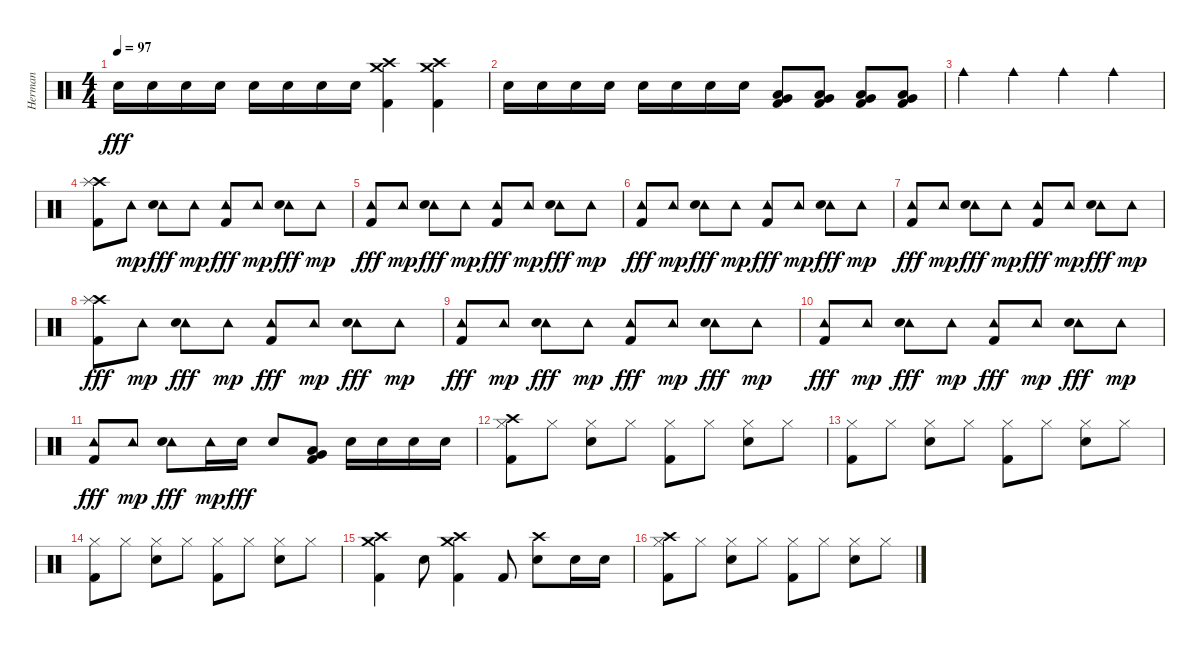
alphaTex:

\track ("Herman" "Herman") {instrument percussion}
\staff {score}
\articulation defaults
\ts (4 4)
\tempo 97
\clef neutral
\ks c "Snare (hit) 2".16{dy fff} "Snare (hit) 2".16 "Snare (hit) 2".16 "Snare (hit) 2".16 "Snare (hit) 2".16 "Snare (hit) 2".16 "Snare (hit) 2".16 "Snare (hit) 2".16
("Crash high (hit)" "Crash medium (hit)" "Kick (hit) 2").4 ("Crash high (hit)" "Crash medium (hit)" "Kick (hit) 2").4 |
"Snare (hit) 2".16 "Snare (hit) 2".16 "Snare (hit) 2".16 "Snare (hit) 2".16 "Snare (hit) 2".16 "Snare (hit) 2".16 "Snare (hit) 2".16 "Snare (hit) 2".16 ("Low Floor Tom (hit)" "Very Low Tom (hit)" "Kick (hit) 2").8 ("Low Floor Tom (hit)" "Very Low Tom (hit)" "Kick (hit) 2").8 ("Low Floor Tom (hit)" "Very Low Tom (hit)" "Kick (hit) 2").8 ("Low Floor Tom (hit)" "Very Low Tom (hit)" "Kick (hit) 2").8 |
"Cowbell medium (hit)".4 "Cowbell medium (hit)".4 "Cowbell medium (hit)".4 "Cowbell medium (hit)".4 |
("Crash high (hit)" "Splash (hit)" "Kick (hit) 2").8 "Tambourine (hit)".8{dy mp} ("Tambourine (hit)" "Snare (hit) 2").8{dy fff} "Tambourine (hit)".8{dy mp} ("Tambourine (hit)" "Kick (hit) 2").8{dy fff} "Tambourine (hit)".8{dy mp} ("Tambourine (hit)" "Snare (hit) 2").8{dy fff} "Tambourine (hit)".8{dy mp} |
("Tambourine (hit)" "Kick (hit) 2").8{dy fff} "Tambourine (hit)".8{dy mp} ("Tambourine (hit)" "Snare (hit) 2").8{dy fff} "Tambourine (hit)".8{dy mp} ("Tambourine (hit)" "Kick (hit) 2").8{dy fff} "Tambourine (hit)".8{dy mp} ("Tambourine (hit)" "Snare (hit) 2").8{dy fff} "Tambourine (hit)".8{dy mp} |
("Tambourine (hit)" "Kick (hit) 2").8{dy fff} "Tambourine (hit)".8{dy mp} ("Tambourine (hit)" "Snare (hit) 2").8{dy fff} "Tambourine (hit)".8{dy mp} ("Tambourine (hit)" "Kick (hit) 2").8{dy fff} "Tambourine (hit)".8{dy mp} ("Tambourine (hit)" "Snare (hit) 2").8{dy fff} "Tambourine (hit)".8{dy mp} |
("Tambourine (hit)" "Kick (hit) 2").8{dy fff} "Tambourine (hit)".8{dy mp} ("Tambourine (hit)" "Snare (hit) 2").8{dy fff} "Tambourine (hit)".8{dy mp} ("Tambourine (hit)" "Kick (hit) 2").8{dy fff} "Tambourine (hit)".8{dy mp} ("Tambourine (hit)" "Snare (hit) 2").8{dy fff} "Tambourine (hit)".8{dy mp} |
("Crash high (hit)" "Splash (hit)" "Kick (hit) 2").8{dy fff} "Tambourine (hit)".8{dy mp} ("Tambourine (hit)" "Snare (hit) 2").8{dy fff} "Tambourine (hit)".8{dy mp} ("Tambourine (hit)" "Kick (hit) 2").8{dy fff} "Tambourine (hit)".8{dy mp} ("Tambourine (hit)" "Snare (hit) 2").8{dy fff} "Tambourine (hit)".8{dy mp} |
("Tambourine (hit)" "Kick (hit) 2").8{dy fff} "Tambourine (hit)".8{dy mp} ("Tambourine (hit)" "Snare (hit) 2").8{dy fff} "Tambourine (hit)".8{dy mp} ("Tambourine (hit)" "Kick (hit) 2").8{dy fff} "Tambourine (hit)".8{dy mp} ("Tambourine (hit)" "Snare (hit) 2").8{dy fff} "Tambourine (hit)".8{dy mp} |
("Tambourine (hit)" "Kick (hit) 2").8{dy fff} "Tambourine (hit)".8{dy mp} ("Tambourine (hit)" "Snare (hit) 2").8{dy fff} "Tambourine (hit)".8{dy mp} ("Tambourine (hit)" "Kick (hit) 2").8{dy fff} "Tambourine (hit)".8{dy mp} ("Tambourine (hit)" "Snare (hit) 2").8{dy fff} "Tambourine (hit)".8{dy mp} |
("Tambourine (hit)" "Kick (hit) 2").8{dy fff} "Tambourine (hit)".8{dy mp} ("Tambourine (hit)" "Snare (hit) 2").8{dy fff} "Tambourine (hit)".16{dy mp} "Snare (hit) 2".16{dy fff} "Snare (hit) 2".8 ("Low Floor Tom (hit)" "Very Low Tom (hit)" "Kick (hit) 2").8 "Snare (hit) 2".16 "Snare (hit) 2".16 "Snare (hit) 2".16 "Snare (hit) 2".16 |
("Crash high (hit)" "Hi-Hat (closed)" "Kick (hit) 2").8 "Hi-Hat (closed)".8 ("Hi-Hat (closed)" "Snare (hit) 2").8 "Hi-Hat (closed)".8 ("Hi-Hat (closed)" "Kick (hit) 2").8 "Hi-Hat (closed)".8 ("Hi-Hat (closed)" "Snare (hit) 2").8 "Hi-Hat (closed)".8 |
("Hi-Hat (closed)" "Kick (hit) 2").8 "Hi-Hat (closed)".8 ("Hi-Hat (closed)" "Snare (hit) 2").8 "Hi-Hat (closed)".8 ("Hi-Hat (closed)" "Kick (hit) 2").8 "Hi-Hat (closed)".8 ("Hi-Hat (closed)" "Snare (hit) 2").8 "Hi-Hat (closed)".8 |
("Hi-Hat (closed)" "Kick (hit) 2").8 "Hi-Hat (closed)".8 ("Hi-Hat (closed)" "Snare (hit) 2").8 "Hi-Hat (closed)".8 ("Hi-Hat (closed)" "Kick (hit) 2").8 "Hi-Hat (closed)".8 ("Hi-Hat (closed)" "Snare (hit) 2").8 "Hi-Hat (closed)".8 |
("Crash high (hit)" "Crash medium (hit)" "Kick (hit) 2").4 "Snare (hit) 2".8 ("Crash high (hit)" "Crash medium (hit)" "Kick (hit) 2").4 "Kick (hit) 2".8 ("Crash high (hit)" "Snare (hit) 2").8 "Snare (hit) 2".16 "Snare (hit) 2".16 |
("Crash high (hit)" "Hi-Hat (closed)" "Kick (hit) 2").8 "Hi-Hat (closed)".8 ("Hi-Hat (closed)" "Snare (hit) 2").8 "Hi-Hat (closed)".8 ("Hi-Hat (closed)" "Kick (hit) 2").8 "Hi-Hat (closed)".8 ("Hi-Hat (closed)" "Snare (hit) 2").8 "Hi-Hat (closed)".8
